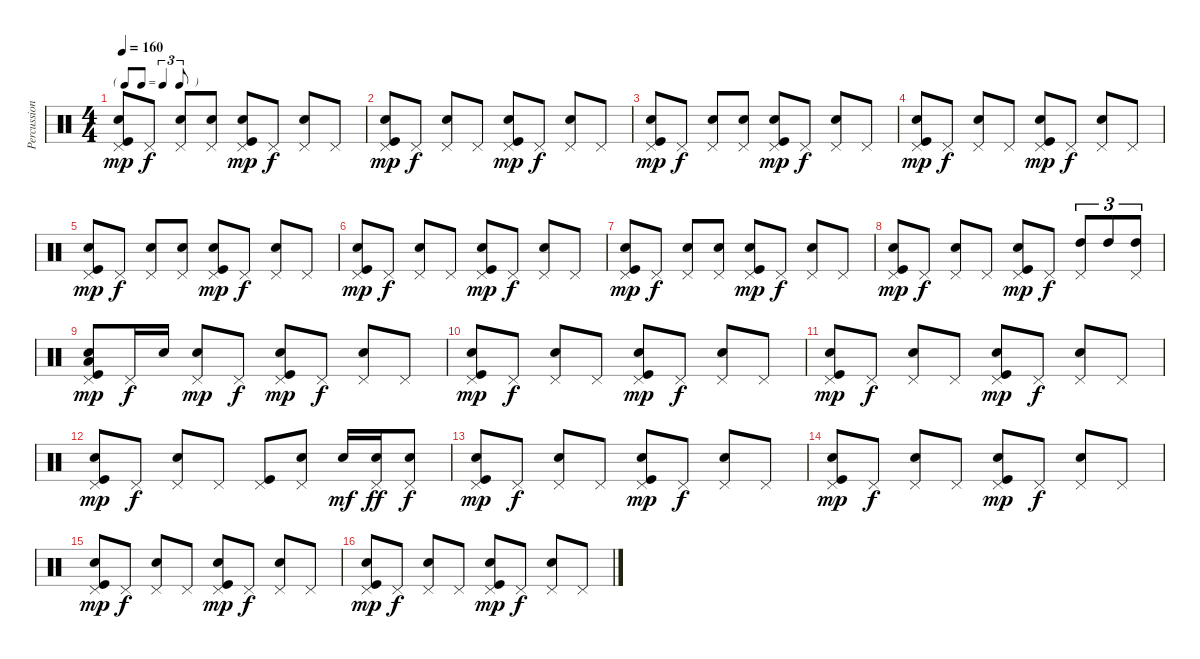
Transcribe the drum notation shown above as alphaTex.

\track ("Percussions" "Percussion") {instrument percussion}
\staff {score}
\articulation defaults
\ts (4 4)
\tf triplet8th
\tempo 160
\clef neutral
\ks c
("Pedal Hi-Hat (hit)" "Snare (hit) 2" "Kick (hit)").8{dy mp} "Pedal Hi-Hat (hit)".8{dy f} ("Pedal Hi-Hat (hit)" "Snare (hit) 2").8 ("Pedal Hi-Hat (hit)" "Snare (hit) 2").8 ("Pedal Hi-Hat (hit)" "Snare (hit) 2" "Kick (hit)").8{dy mp} "Pedal Hi-Hat (hit)".8{dy f} ("Pedal Hi-Hat (hit)" "Snare (hit) 2").8 "Pedal Hi-Hat (hit)".8 |
("Pedal Hi-Hat (hit)" "Snare (hit) 2" "Kick (hit)").8{dy mp} "Pedal Hi-Hat (hit)".8{dy f} ("Pedal Hi-Hat (hit)" "Snare (hit) 2").8 "Pedal Hi-Hat (hit)".8 ("Pedal Hi-Hat (hit)" "Snare (hit) 2" "Kick (hit)").8{dy mp} "Pedal Hi-Hat (hit)".8{dy f} ("Pedal Hi-Hat (hit)" "Snare (hit) 2").8 "Pedal Hi-Hat (hit)".8 |
("Pedal Hi-Hat (hit)" "Snare (hit) 2" "Kick (hit)").8{dy mp} "Pedal Hi-Hat (hit)".8{dy f} ("Pedal Hi-Hat (hit)" "Snare (hit) 2").8 ("Pedal Hi-Hat (hit)" "Snare (hit) 2").8 ("Pedal Hi-Hat (hit)" "Snare (hit) 2" "Kick (hit)").8{dy mp} "Pedal Hi-Hat (hit)".8{dy f} ("Pedal Hi-Hat (hit)" "Snare (hit) 2").8 "Pedal Hi-Hat (hit)".8 |
("Pedal Hi-Hat (hit)" "Snare (hit) 2" "Kick (hit)").8{dy mp} "Pedal Hi-Hat (hit)".8{dy f} ("Pedal Hi-Hat (hit)" "Snare (hit) 2").8 "Pedal Hi-Hat (hit)".8 ("Pedal Hi-Hat (hit)" "Snare (hit) 2" "Kick (hit)").8{dy mp} "Pedal Hi-Hat (hit)".8{dy f} ("Pedal Hi-Hat (hit)" "Snare (hit) 2").8 "Pedal Hi-Hat (hit)".8 |
("Pedal Hi-Hat (hit)" "Snare (hit) 2" "Kick (hit)").8{dy mp} "Pedal Hi-Hat (hit)".8{dy f} ("Pedal Hi-Hat (hit)" "Snare (hit) 2").8 ("Pedal Hi-Hat (hit)" "Snare (hit) 2").8 ("Pedal Hi-Hat (hit)" "Snare (hit) 2" "Kick (hit)").8{dy mp} "Pedal Hi-Hat (hit)".8{dy f} ("Pedal Hi-Hat (hit)" "Snare (hit) 2").8 "Pedal Hi-Hat (hit)".8 |
("Pedal Hi-Hat (hit)" "Snare (hit) 2" "Kick (hit)").8{dy mp} "Pedal Hi-Hat (hit)".8{dy f} ("Pedal Hi-Hat (hit)" "Snare (hit) 2").8 "Pedal Hi-Hat (hit)".8 ("Pedal Hi-Hat (hit)" "Snare (hit) 2" "Kick (hit)").8{dy mp} "Pedal Hi-Hat (hit)".8{dy f} ("Pedal Hi-Hat (hit)" "Snare (hit) 2").8 "Pedal Hi-Hat (hit)".8 |
("Pedal Hi-Hat (hit)" "Snare (hit) 2" "Kick (hit)").8{dy mp} "Pedal Hi-Hat (hit)".8{dy f} ("Pedal Hi-Hat (hit)" "Snare (hit) 2").8 ("Pedal Hi-Hat (hit)" "Snare (hit) 2").8 ("Pedal Hi-Hat (hit)" "Snare (hit) 2" "Kick (hit)").8{dy mp} "Pedal Hi-Hat (hit)".8{dy f} ("Pedal Hi-Hat (hit)" "Snare (hit) 2").8 "Pedal Hi-Hat (hit)".8 |
("Pedal Hi-Hat (hit)" "Snare (hit) 2" "Kick (hit)").8{dy mp} "Pedal Hi-Hat (hit)".8{dy f} ("Pedal Hi-Hat (hit)" "Snare (hit) 2").8 "Pedal Hi-Hat (hit)".8 ("Pedal Hi-Hat (hit)" "Snare (hit) 2" "Kick (hit)").8{dy mp} "Pedal Hi-Hat (hit)".8{dy f} ("Pedal Hi-Hat (hit)" "High Tom (hit)").8{tu (3 2)} "High Tom (hit)".8{tu (3 2)} ("Pedal Hi-Hat (hit)" "High Tom (hit)").8{tu (3 2)} |
("Pedal Hi-Hat (hit)" "Snare (hit) 2" "Low Tom (hit)" "Kick (hit)").8{dy mp} "Pedal Hi-Hat (hit)".16{dy f} "Snare (hit) 2".16 ("Pedal Hi-Hat (hit)" "Snare (hit) 2").8{dy mp} "Pedal Hi-Hat (hit)".8{dy f} ("Pedal Hi-Hat (hit)" "Snare (hit) 2" "Kick (hit)").8{dy mp} "Pedal Hi-Hat (hit)".8{dy f} ("Pedal Hi-Hat (hit)" "Snare (hit) 2").8 "Pedal Hi-Hat (hit)".8 |
("Pedal Hi-Hat (hit)" "Snare (hit) 2" "Kick (hit)").8{dy mp} "Pedal Hi-Hat (hit)".8{dy f} ("Pedal Hi-Hat (hit)" "Snare (hit) 2").8 "Pedal Hi-Hat (hit)".8 ("Pedal Hi-Hat (hit)" "Snare (hit) 2" "Kick (hit)").8{dy mp} "Pedal Hi-Hat (hit)".8{dy f} ("Pedal Hi-Hat (hit)" "Snare (hit) 2").8 "Pedal Hi-Hat (hit)".8 |
("Pedal Hi-Hat (hit)" "Snare (hit) 2" "Kick (hit)").8{dy mp} "Pedal Hi-Hat (hit)".8{dy f} ("Pedal Hi-Hat (hit)" "Snare (hit) 2").8 "Pedal Hi-Hat (hit)".8 ("Pedal Hi-Hat (hit)" "Snare (hit) 2" "Kick (hit)").8{dy mp} "Pedal Hi-Hat (hit)".8{dy f} ("Pedal Hi-Hat (hit)" "Snare (hit) 2").8 "Pedal Hi-Hat (hit)".8 |
("Pedal Hi-Hat (hit)" "Snare (hit) 2" "Kick (hit)").8{dy mp} "Pedal Hi-Hat (hit)".8{dy f} ("Pedal Hi-Hat (hit)" "Snare (hit) 2").8 "Pedal Hi-Hat (hit)".8 ("Pedal Hi-Hat (hit)" "Kick (hit)").8 ("Pedal Hi-Hat (hit)" "Snare (hit) 2").8 "Snare (hit) 2".16{dy mf} ("Pedal Hi-Hat (hit)" "Snare (hit) 2").16{dy ff} ("Pedal Hi-Hat (hit)" "Snare (hit) 2").8{dy f} |
("Pedal Hi-Hat (hit)" "Snare (hit) 2" "Kick (hit)").8{dy mp} "Pedal Hi-Hat (hit)".8{dy f} ("Pedal Hi-Hat (hit)" "Snare (hit) 2").8 "Pedal Hi-Hat (hit)".8 ("Pedal Hi-Hat (hit)" "Snare (hit) 2" "Kick (hit)").8{dy mp} "Pedal Hi-Hat (hit)".8{dy f} ("Pedal Hi-Hat (hit)" "Snare (hit) 2").8 "Pedal Hi-Hat (hit)".8 |
("Pedal Hi-Hat (hit)" "Snare (hit) 2" "Kick (hit)").8{dy mp} "Pedal Hi-Hat (hit)".8{dy f} ("Pedal Hi-Hat (hit)" "Snare (hit) 2").8 "Pedal Hi-Hat (hit)".8 ("Pedal Hi-Hat (hit)" "Snare (hit) 2" "Kick (hit)").8{dy mp} "Pedal Hi-Hat (hit)".8{dy f} ("Pedal Hi-Hat (hit)" "Snare (hit) 2").8 "Pedal Hi-Hat (hit)".8 |
("Pedal Hi-Hat (hit)" "Snare (hit) 2" "Kick (hit)").8{dy mp} "Pedal Hi-Hat (hit)".8{dy f} ("Pedal Hi-Hat (hit)" "Snare (hit) 2").8 "Pedal Hi-Hat (hit)".8 ("Pedal Hi-Hat (hit)" "Snare (hit) 2" "Kick (hit)").8{dy mp} "Pedal Hi-Hat (hit)".8{dy f} ("Pedal Hi-Hat (hit)" "Snare (hit) 2").8 "Pedal Hi-Hat (hit)".8 |
("Pedal Hi-Hat (hit)" "Snare (hit) 2" "Kick (hit)").8{dy mp} "Pedal Hi-Hat (hit)".8{dy f} ("Pedal Hi-Hat (hit)" "Snare (hit) 2").8 "Pedal Hi-Hat (hit)".8 ("Pedal Hi-Hat (hit)" "Snare (hit) 2" "Kick (hit)").8{dy mp} "Pedal Hi-Hat (hit)".8{dy f} ("Pedal Hi-Hat (hit)" "Snare (hit) 2").8 "Pedal Hi-Hat (hit)".8
